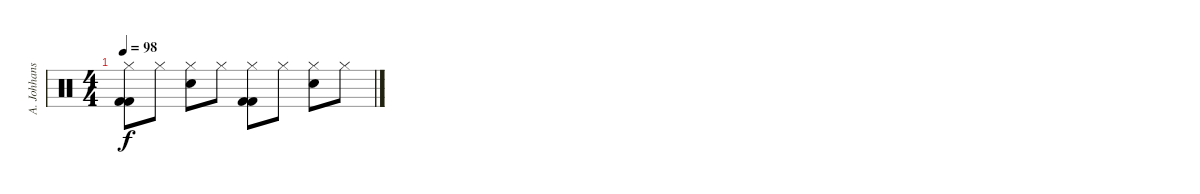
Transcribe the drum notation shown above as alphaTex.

\track ("A. Johhanson" "A. Johhans") {instrument percussion}
\staff {score}
\articulation defaults
\ts (4 4)
\tempo 98
\clef neutral
\ks c
("Hi-Hat (closed)" "Kick (hit) 2" "Kick (hit) 2").8{dy f} "Hi-Hat (closed)".8 ("Hi-Hat (closed)" "Snare (hit) 2").8 "Hi-Hat (closed)".8 ("Hi-Hat (closed)" "Kick (hit) 2" "Kick (hit) 2").8 "Hi-Hat (closed)".8 ("Hi-Hat (closed)" "Snare (hit) 2").8 "Hi-Hat (closed)".8
